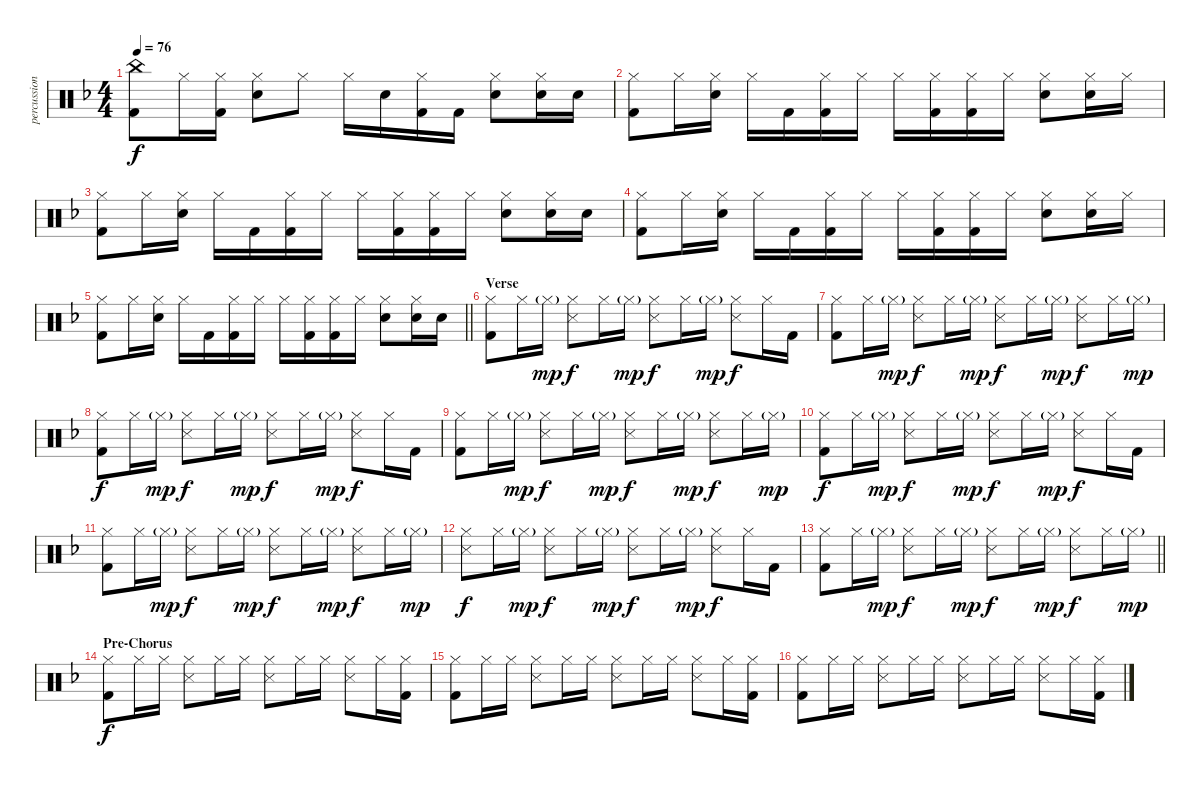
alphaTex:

\track ("percussion" "percussion") {instrument percussion}
\staff {score}
\articulation defaults
\ts (4 4)
\tempo 76
\clef neutral
\ks f
("China (hit)" "Kick (hit) 2").8{dy f} "Hi-Hat (closed)".16 ("Hi-Hat (closed)" "Kick (hit) 2").16 ("Electric Snare (hit)" "Hi-Hat (closed)").8 "Hi-Hat (closed)".8 "Hi-Hat (closed)".16 "Electric Snare (hit)".16 ("Hi-Hat (closed)" "Kick (hit) 2").16 "Kick (hit) 2".16 ("Electric Snare (hit)" "Hi-Hat (closed)").8 ("Electric Snare (hit)" "Hi-Hat (closed)").16 "Electric Snare (hit)".16 |
("Hi-Hat (closed)" "Kick (hit) 2").8 "Hi-Hat (closed)".16 ("Electric Snare (hit)" "Hi-Hat (closed)").16 "Hi-Hat (closed)".16 "Kick (hit) 2".16 ("Hi-Hat (closed)" "Kick (hit) 2").16 "Hi-Hat (closed)".16 "Hi-Hat (closed)".16 ("Hi-Hat (closed)" "Kick (hit) 2").16 ("Hi-Hat (closed)" "Kick (hit) 2").16 "Hi-Hat (closed)".16 ("Electric Snare (hit)" "Hi-Hat (closed)").8 ("Electric Snare (hit)" "Hi-Hat (closed)").16 "Hi-Hat (closed)".16 |
("Hi-Hat (closed)" "Kick (hit) 2").8 "Hi-Hat (closed)".16 ("Electric Snare (hit)" "Hi-Hat (closed)").16 "Hi-Hat (closed)".16 "Kick (hit) 2".16 ("Hi-Hat (closed)" "Kick (hit) 2").16 "Hi-Hat (closed)".16 "Hi-Hat (closed)".16 ("Hi-Hat (closed)" "Kick (hit) 2").16 ("Hi-Hat (closed)" "Kick (hit) 2").16 "Hi-Hat (closed)".16 ("Electric Snare (hit)" "Hi-Hat (closed)").8 ("Electric Snare (hit)" "Hi-Hat (closed)").16 "Electric Snare (hit)".16 |
("Hi-Hat (closed)" "Kick (hit) 2").8 "Hi-Hat (closed)".16 ("Electric Snare (hit)" "Hi-Hat (closed)").16 "Hi-Hat (closed)".16 "Kick (hit) 2".16 ("Hi-Hat (closed)" "Kick (hit) 2").16 "Hi-Hat (closed)".16 "Hi-Hat (closed)".16 ("Hi-Hat (closed)" "Kick (hit) 2").16 ("Hi-Hat (closed)" "Kick (hit) 2").16 "Hi-Hat (closed)".16 ("Electric Snare (hit)" "Hi-Hat (closed)").8 ("Electric Snare (hit)" "Hi-Hat (closed)").16 "Hi-Hat (closed)".16 |
\barLineRight lightlight
("Hi-Hat (closed)" "Kick (hit) 2").8 "Hi-Hat (closed)".16 ("Electric Snare (hit)" "Hi-Hat (closed)").16 "Hi-Hat (closed)".16 "Kick (hit) 2".16 ("Hi-Hat (closed)" "Kick (hit) 2").16 "Hi-Hat (closed)".16 "Hi-Hat (closed)".16 ("Hi-Hat (closed)" "Kick (hit) 2").16 ("Hi-Hat (closed)" "Kick (hit) 2").16 "Hi-Hat (closed)".16 ("Electric Snare (hit)" "Hi-Hat (closed)").8 ("Electric Snare (hit)" "Hi-Hat (closed)").16 "Electric Snare (hit)".16 |
\section ("" "Verse")
("Hi-Hat (closed)" "Kick (hit) 2").8 "Hi-Hat (closed)".16 "Hi-Hat (closed)"{g}.16{dy mp} ("Snare (side stick) 3" "Hi-Hat (closed)").8{dy f} "Hi-Hat (closed)".16 "Hi-Hat (closed)"{g}.16{dy mp} ("Snare (side stick) 3" "Hi-Hat (closed)").8{dy f} "Hi-Hat (closed)".16 "Hi-Hat (closed)"{g}.16{dy mp} ("Snare (side stick) 3" "Hi-Hat (closed)").8{dy f} "Hi-Hat (closed)".16 "Kick (hit) 2".16 |
("Hi-Hat (closed)" "Kick (hit) 2").8 "Hi-Hat (closed)".16 "Hi-Hat (closed)"{g}.16{dy mp} ("Snare (side stick) 3" "Hi-Hat (closed)").8{dy f} "Hi-Hat (closed)".16 "Hi-Hat (closed)"{g}.16{dy mp} ("Snare (side stick) 3" "Hi-Hat (closed)").8{dy f} "Hi-Hat (closed)".16 "Hi-Hat (closed)"{g}.16{dy mp} ("Snare (side stick) 3" "Hi-Hat (closed)").8{dy f} "Hi-Hat (closed)".16 "Hi-Hat (closed)"{g}.16{dy mp} |
("Hi-Hat (closed)" "Kick (hit) 2").8{dy f} "Hi-Hat (closed)".16 "Hi-Hat (closed)"{g}.16{dy mp} ("Snare (side stick) 3" "Hi-Hat (closed)").8{dy f} "Hi-Hat (closed)".16 "Hi-Hat (closed)"{g}.16{dy mp} ("Snare (side stick) 3" "Hi-Hat (closed)").8{dy f} "Hi-Hat (closed)".16 "Hi-Hat (closed)"{g}.16{dy mp} ("Snare (side stick) 3" "Hi-Hat (closed)").8{dy f} "Hi-Hat (closed)".16 "Kick (hit) 2".16 |
("Hi-Hat (closed)" "Kick (hit) 2").8 "Hi-Hat (closed)".16 "Hi-Hat (closed)"{g}.16{dy mp} ("Snare (side stick) 3" "Hi-Hat (closed)").8{dy f} "Hi-Hat (closed)".16 "Hi-Hat (closed)"{g}.16{dy mp} ("Snare (side stick) 3" "Hi-Hat (closed)").8{dy f} "Hi-Hat (closed)".16 "Hi-Hat (closed)"{g}.16{dy mp} ("Snare (side stick) 3" "Hi-Hat (closed)").8{dy f} "Hi-Hat (closed)".16 "Hi-Hat (closed)"{g}.16{dy mp} |
("Hi-Hat (closed)" "Kick (hit) 2").8{dy f} "Hi-Hat (closed)".16 "Hi-Hat (closed)"{g}.16{dy mp} ("Snare (side stick) 3" "Hi-Hat (closed)").8{dy f} "Hi-Hat (closed)".16 "Hi-Hat (closed)"{g}.16{dy mp} ("Snare (side stick) 3" "Hi-Hat (closed)").8{dy f} "Hi-Hat (closed)".16 "Hi-Hat (closed)"{g}.16{dy mp} ("Snare (side stick) 3" "Hi-Hat (closed)").8{dy f} "Hi-Hat (closed)".16 "Kick (hit) 2".16 |
("Hi-Hat (closed)" "Kick (hit) 2").8 "Hi-Hat (closed)".16 "Hi-Hat (closed)"{g}.16{dy mp} ("Snare (side stick) 3" "Hi-Hat (closed)").8{dy f} "Hi-Hat (closed)".16 "Hi-Hat (closed)"{g}.16{dy mp} ("Snare (side stick) 3" "Hi-Hat (closed)").8{dy f} "Hi-Hat (closed)".16 "Hi-Hat (closed)"{g}.16{dy mp} ("Snare (side stick) 3" "Hi-Hat (closed)").8{dy f} "Hi-Hat (closed)".16 "Hi-Hat (closed)"{g}.16{dy mp} |
("Snare (side stick) 3" "Hi-Hat (closed)").8{dy f} "Hi-Hat (closed)".16 "Hi-Hat (closed)"{g}.16{dy mp} ("Snare (side stick) 3" "Hi-Hat (closed)").8{dy f} "Hi-Hat (closed)".16 "Hi-Hat (closed)"{g}.16{dy mp} ("Snare (side stick) 3" "Hi-Hat (closed)").8{dy f} "Hi-Hat (closed)".16 "Hi-Hat (closed)"{g}.16{dy mp} ("Snare (side stick) 3" "Hi-Hat (closed)").8{dy f} "Hi-Hat (closed)".16 "Kick (hit) 2".16 |
\barLineRight lightlight
("Hi-Hat (closed)" "Kick (hit) 2").8 "Hi-Hat (closed)".16 "Hi-Hat (closed)"{g}.16{dy mp} ("Snare (side stick) 3" "Hi-Hat (closed)").8{dy f} "Hi-Hat (closed)".16 "Hi-Hat (closed)"{g}.16{dy mp} ("Snare (side stick) 3" "Hi-Hat (closed)").8{dy f} "Hi-Hat (closed)".16 "Hi-Hat (closed)"{g}.16{dy mp} ("Snare (side stick) 3" "Hi-Hat (closed)").8{dy f} "Hi-Hat (closed)".16 "Hi-Hat (closed)"{g}.16{dy mp} |
\section ("" "Pre-Chorus")
("Hi-Hat (closed)" "Kick (hit) 2").8{dy f} "Hi-Hat (closed)".16 "Hi-Hat (closed)".16 ("Snare (side stick) 3" "Hi-Hat (closed)").8 "Hi-Hat (closed)".16 "Hi-Hat (closed)".16 ("Snare (side stick) 3" "Hi-Hat (closed)").8 "Hi-Hat (closed)".16 "Hi-Hat (closed)".16 ("Snare (side stick) 3" "Hi-Hat (closed)").8 "Hi-Hat (closed)".16 ("Hi-Hat (closed)" "Kick (hit) 2").16 |
("Hi-Hat (closed)" "Kick (hit) 2").8 "Hi-Hat (closed)".16 "Hi-Hat (closed)".16 ("Snare (side stick) 3" "Hi-Hat (closed)").8 "Hi-Hat (closed)".16 "Hi-Hat (closed)".16 ("Snare (side stick) 3" "Hi-Hat (closed)").8 "Hi-Hat (closed)".16 "Hi-Hat (closed)".16 ("Snare (side stick) 3" "Hi-Hat (closed)").8 "Hi-Hat (closed)".16 ("Hi-Hat (closed)" "Kick (hit) 2").16 |
("Hi-Hat (closed)" "Kick (hit) 2").8 "Hi-Hat (closed)".16 "Hi-Hat (closed)".16 ("Snare (side stick) 3" "Hi-Hat (closed)").8 "Hi-Hat (closed)".16 "Hi-Hat (closed)".16 ("Snare (side stick) 3" "Hi-Hat (closed)").8 "Hi-Hat (closed)".16 "Hi-Hat (closed)".16 ("Snare (side stick) 3" "Hi-Hat (closed)").8 "Hi-Hat (closed)".16 ("Hi-Hat (closed)" "Kick (hit) 2").16
